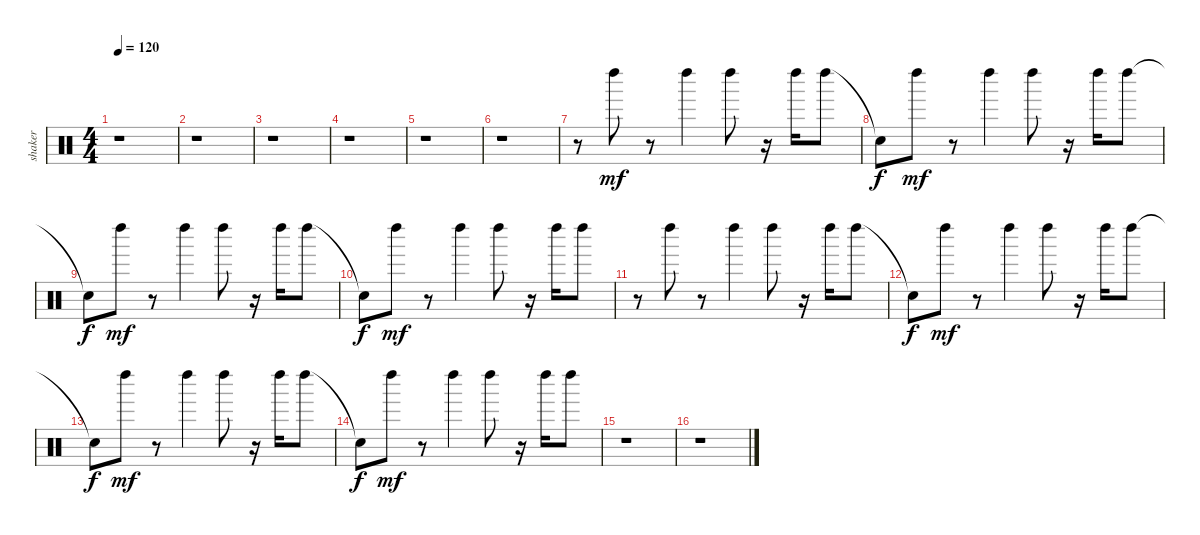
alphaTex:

\track ("shaker" "shaker") {instrument percussion}
\staff {score}
\articulation defaults
\ts (4 4)
\tempo 120
\clef neutral
\ks c
r.1{dy mf} |
r.1 |
r.1 |
r.1 |
r.1 |
r.1 |
r.8 "Left Maraca (hit)".8 r.8 "Left Maraca (hit)".4 "Left Maraca (hit)".8 r.16 "Left Maraca (hit)".16 "Left Maraca (hit)".8 |
"Snare (hit)"{t}.8{dy f} "Left Maraca (hit)".8{dy mf} r.8 "Left Maraca (hit)".4 "Left Maraca (hit)".8 r.16 "Left Maraca (hit)".16 "Left Maraca (hit)".8 |
"Snare (hit)"{t}.8{dy f} "Left Maraca (hit)".8{dy mf} r.8 "Left Maraca (hit)".4 "Left Maraca (hit)".8 r.16 "Left Maraca (hit)".16 "Left Maraca (hit)".8 |
"Snare (hit)"{t}.8{dy f} "Left Maraca (hit)".8{dy mf} r.8 "Left Maraca (hit)".4 "Left Maraca (hit)".8 r.16 "Left Maraca (hit)".16 "Left Maraca (hit)".8 |
r.8 "Left Maraca (hit)".8 r.8 "Left Maraca (hit)".4 "Left Maraca (hit)".8 r.16 "Left Maraca (hit)".16 "Left Maraca (hit)".8 |
"Snare (hit)"{t}.8{dy f} "Left Maraca (hit)".8{dy mf} r.8 "Left Maraca (hit)".4 "Left Maraca (hit)".8 r.16 "Left Maraca (hit)".16 "Left Maraca (hit)".8 |
"Snare (hit)"{t}.8{dy f} "Left Maraca (hit)".8{dy mf} r.8 "Left Maraca (hit)".4 "Left Maraca (hit)".8 r.16 "Left Maraca (hit)".16 "Left Maraca (hit)".8 |
"Snare (hit)"{t}.8{dy f} "Left Maraca (hit)".8{dy mf} r.8 "Left Maraca (hit)".4 "Left Maraca (hit)".8 r.16 "Left Maraca (hit)".16 "Left Maraca (hit)".8 |
r.1 |
r.1
